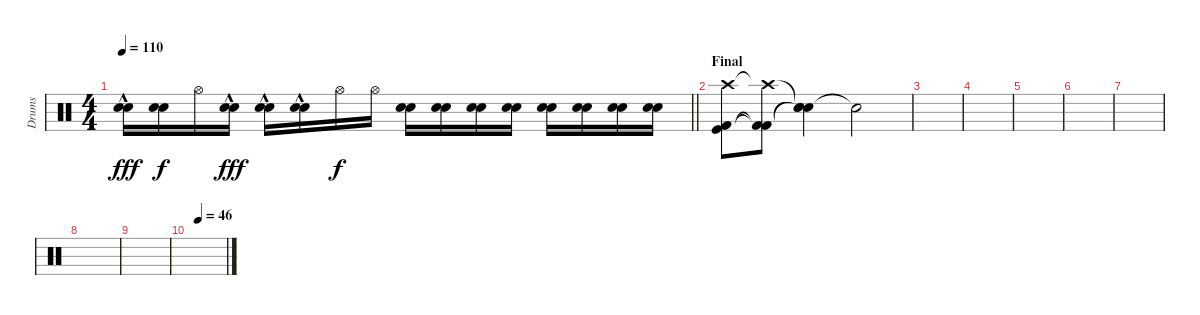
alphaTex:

\track ("Drums" "Drums") {instrument percussion}
\staff {score}
\articulation defaults
\ts (4 4)
\tempo 110
\clef neutral
\barLineRight lightlight
\ks c
("Electric Snare (hit)"{hac} "Electric Snare (hit)"{hac}).16{dy fff} ("Electric Snare (hit)" "Electric Snare (hit)").16{dy f} "Hi-Hat (open)".16 ("Electric Snare (hit)"{hac} "Electric Snare (hit)"{hac}).16{dy fff} ("Electric Snare (hit)"{hac} "Electric Snare (hit)"{hac}).16 ("Electric Snare (hit)"{hac} "Electric Snare (hit)"{hac}).16 "Hi-Hat (open)".16{dy f} "Hi-Hat (open)".16 ("Electric Snare (hit)" "Electric Snare (hit)").16 ("Electric Snare (hit)" "Electric Snare (hit)").16 ("Electric Snare (hit)" "Electric Snare (hit)").16 ("Electric Snare (hit)" "Electric Snare (hit)").16 ("Electric Snare (hit)" "Electric Snare (hit)").16 ("Electric Snare (hit)" "Electric Snare (hit)").16 ("Electric Snare (hit)" "Electric Snare (hit)").16 ("Electric Snare (hit)" "Electric Snare (hit)").16 |
\section ("" "Final")
("Crash high (hit)" "Kick (hit)" "Kick (hit) 2").8 ("Crash high (hit)"{t} "Kick (hit) 2"{t} "Kick (hit) 2"{t}).8 ("Snare (hit)"{t} "Snare (hit)"{t} "Snare (hit)"{t}).4 "Snare (hit)"{t}.2 |
|
|
|
|
|
|
|
\tempo (46 0.25)
